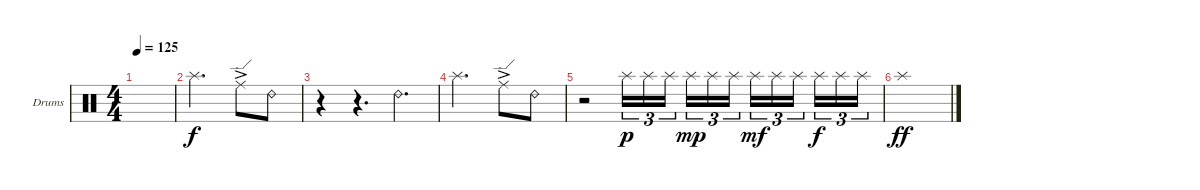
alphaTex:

\bracketExtendMode groupsimilarinstruments
\firstSystemTrackNameOrientation horizontal
\otherSystemsTrackNameOrientation horizontal
\track ("Drumkit" "Drums") {instrument percussion}
\staff {score}
\articulation defaults
\ts (4 4)
\tempo 125
\clef neutral
\ks c
|
"Splash (hit)".2{d} "Ride (edge)"{ac}.8 "Ride (bell) 2".8 |
r.4 r.4{d} "Ride (bell) 2".4{d} |
"Splash (hit)".2{d} "Ride (edge)"{ac}.8 "Ride (bell) 2".8 |
r.2 "Splash (hit)".16{tu (3 2) dy p} "Splash (hit)".16{tu (3 2)} "Splash (hit)".16{tu (3 2)} "Splash (hit)".16{tu (3 2) dy mp} "Splash (hit)".16{tu (3 2)} "Splash (hit)".16{tu (3 2)} "Splash (hit)".16{tu (3 2) dy mf} "Splash (hit)".16{tu (3 2)} "Splash (hit)".16{tu (3 2)} "Splash (hit)".16{tu (3 2) dy f} "Splash (hit)".16{tu (3 2)} "Splash (hit)".16{tu (3 2)} |
"Splash (hit)".1{dy ff}
